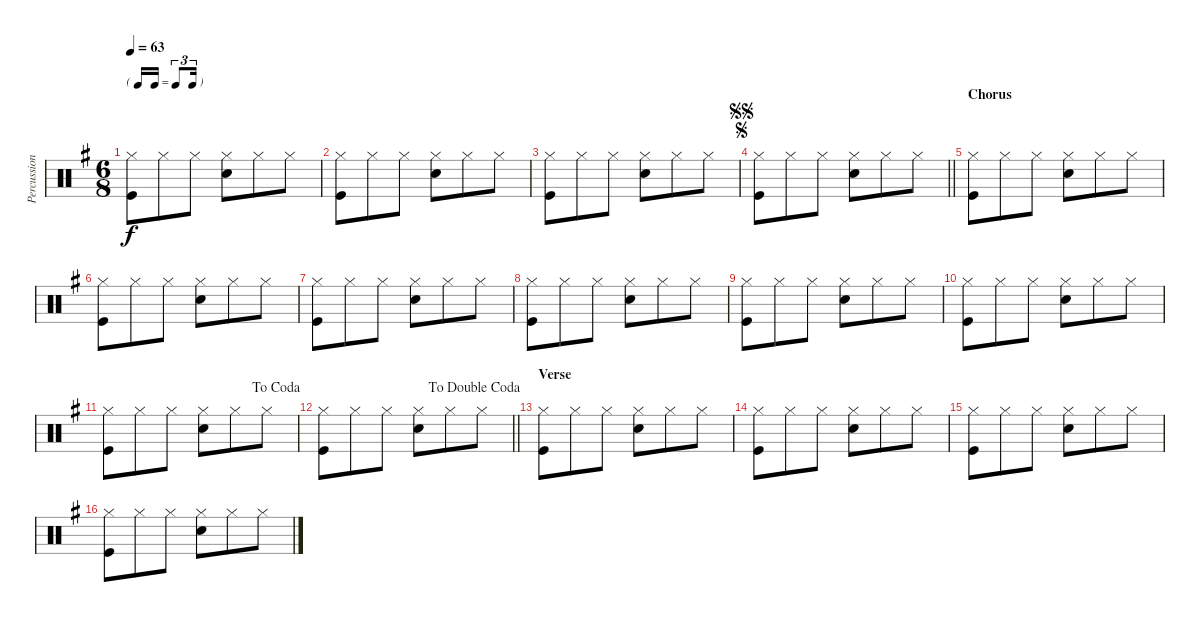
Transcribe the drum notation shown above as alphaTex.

\track ("Percussion" "Percussion") {instrument percussion}
\staff {score}
\articulation defaults
\ts (6 8)
\tf triplet16th
\tempo 63
\clef neutral
\ks g
("Hi-Hat (closed)" "Kick (hit)").8{dy f} "Hi-Hat (closed)".8 "Hi-Hat (closed)".8 ("Hi-Hat (closed)" "Electric Snare (hit)").8 "Hi-Hat (closed)".8 "Hi-Hat (closed)".8 |
("Hi-Hat (closed)" "Kick (hit)").8 "Hi-Hat (closed)".8 "Hi-Hat (closed)".8 ("Hi-Hat (closed)" "Electric Snare (hit)").8 "Hi-Hat (closed)".8 "Hi-Hat (closed)".8 |
("Hi-Hat (closed)" "Kick (hit)").8 "Hi-Hat (closed)".8 "Hi-Hat (closed)".8 ("Hi-Hat (closed)" "Electric Snare (hit)").8 "Hi-Hat (closed)".8 "Hi-Hat (closed)".8 |
\jump segno
\jump segnosegno
\barLineRight lightlight
("Hi-Hat (closed)" "Kick (hit)").8 "Hi-Hat (closed)".8 "Hi-Hat (closed)".8 ("Hi-Hat (closed)" "Electric Snare (hit)").8 "Hi-Hat (closed)".8 "Hi-Hat (closed)".8 |
\section ("" "Chorus")
("Hi-Hat (closed)" "Kick (hit)").8 "Hi-Hat (closed)".8 "Hi-Hat (closed)".8 ("Hi-Hat (closed)" "Electric Snare (hit)").8 "Hi-Hat (closed)".8 "Hi-Hat (closed)".8 |
("Hi-Hat (closed)" "Kick (hit)").8 "Hi-Hat (closed)".8 "Hi-Hat (closed)".8 ("Hi-Hat (closed)" "Electric Snare (hit)").8 "Hi-Hat (closed)".8 "Hi-Hat (closed)".8 |
("Hi-Hat (closed)" "Kick (hit)").8 "Hi-Hat (closed)".8 "Hi-Hat (closed)".8 ("Hi-Hat (closed)" "Electric Snare (hit)").8 "Hi-Hat (closed)".8 "Hi-Hat (closed)".8 |
("Hi-Hat (closed)" "Kick (hit)").8 "Hi-Hat (closed)".8 "Hi-Hat (closed)".8 ("Hi-Hat (closed)" "Electric Snare (hit)").8 "Hi-Hat (closed)".8 "Hi-Hat (closed)".8 |
("Hi-Hat (closed)" "Kick (hit)").8 "Hi-Hat (closed)".8 "Hi-Hat (closed)".8 ("Hi-Hat (closed)" "Electric Snare (hit)").8 "Hi-Hat (closed)".8 "Hi-Hat (closed)".8 |
("Hi-Hat (closed)" "Kick (hit)").8 "Hi-Hat (closed)".8 "Hi-Hat (closed)".8 ("Hi-Hat (closed)" "Electric Snare (hit)").8 "Hi-Hat (closed)".8 "Hi-Hat (closed)".8 |
\jump dacoda
("Hi-Hat (closed)" "Kick (hit)").8 "Hi-Hat (closed)".8 "Hi-Hat (closed)".8 ("Hi-Hat (closed)" "Electric Snare (hit)").8 "Hi-Hat (closed)".8 "Hi-Hat (closed)".8 |
\jump dadoublecoda
\barLineRight lightlight
("Hi-Hat (closed)" "Kick (hit)").8 "Hi-Hat (closed)".8 "Hi-Hat (closed)".8 ("Hi-Hat (closed)" "Electric Snare (hit)").8 "Hi-Hat (closed)".8 "Hi-Hat (closed)".8 |
\section ("" "Verse")
("Hi-Hat (closed)" "Kick (hit)").8 "Hi-Hat (closed)".8 "Hi-Hat (closed)".8 ("Hi-Hat (closed)" "Electric Snare (hit)").8 "Hi-Hat (closed)".8 "Hi-Hat (closed)".8 |
("Hi-Hat (closed)" "Kick (hit)").8 "Hi-Hat (closed)".8 "Hi-Hat (closed)".8 ("Hi-Hat (closed)" "Electric Snare (hit)").8 "Hi-Hat (closed)".8 "Hi-Hat (closed)".8 |
("Hi-Hat (closed)" "Kick (hit)").8 "Hi-Hat (closed)".8 "Hi-Hat (closed)".8 ("Hi-Hat (closed)" "Electric Snare (hit)").8 "Hi-Hat (closed)".8 "Hi-Hat (closed)".8 |
("Hi-Hat (closed)" "Kick (hit)").8 "Hi-Hat (closed)".8 "Hi-Hat (closed)".8 ("Hi-Hat (closed)" "Electric Snare (hit)").8 "Hi-Hat (closed)".8 "Hi-Hat (closed)".8
